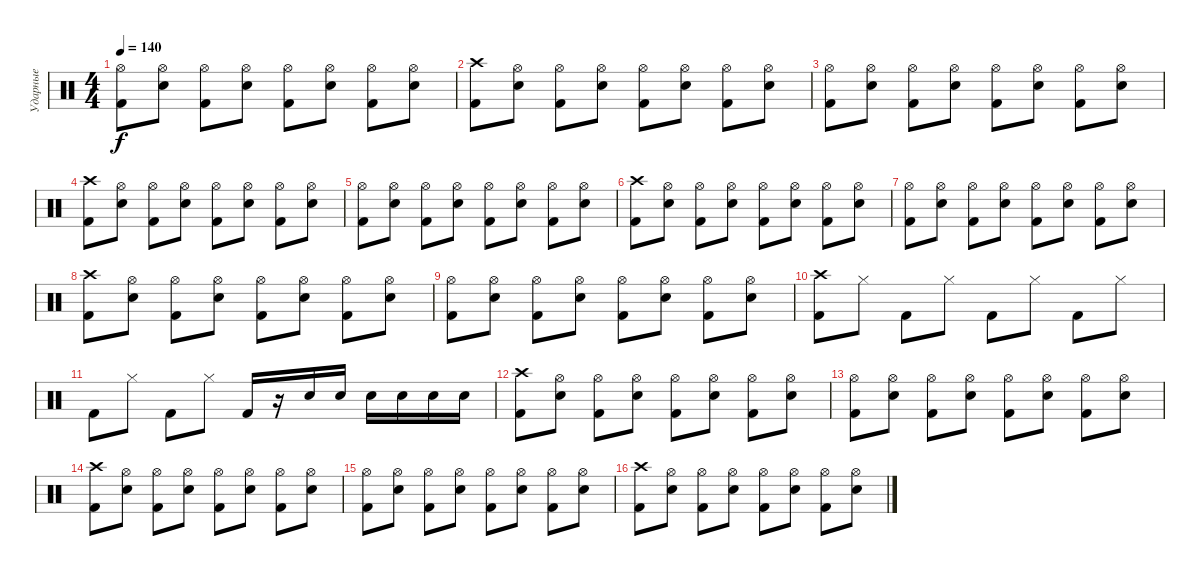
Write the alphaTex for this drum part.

\track ("Ударные" "Ударные") {instrument percussion}
\staff {score}
\articulation defaults
\ts (4 4)
\tempo 140
\clef neutral
\ks c
("Kick (hit) 2" "Hi-Hat (open)").8{dy f} ("Electric Snare (hit)" "Hi-Hat (open)").8 ("Kick (hit) 2" "Hi-Hat (open)").8 ("Electric Snare (hit)" "Hi-Hat (open)").8 ("Kick (hit) 2" "Hi-Hat (open)").8 ("Electric Snare (hit)" "Hi-Hat (open)").8 ("Kick (hit) 2" "Hi-Hat (open)").8 ("Electric Snare (hit)" "Hi-Hat (open)").8 |
("Kick (hit) 2" "Crash high (hit)").8 ("Electric Snare (hit)" "Hi-Hat (open)").8 ("Kick (hit) 2" "Hi-Hat (open)").8 ("Electric Snare (hit)" "Hi-Hat (open)").8 ("Kick (hit) 2" "Hi-Hat (open)").8 ("Electric Snare (hit)" "Hi-Hat (open)").8 ("Kick (hit) 2" "Hi-Hat (open)").8 ("Electric Snare (hit)" "Hi-Hat (open)").8 |
("Kick (hit) 2" "Hi-Hat (open)").8 ("Electric Snare (hit)" "Hi-Hat (open)").8 ("Kick (hit) 2" "Hi-Hat (open)").8 ("Electric Snare (hit)" "Hi-Hat (open)").8 ("Kick (hit) 2" "Hi-Hat (open)").8 ("Electric Snare (hit)" "Hi-Hat (open)").8 ("Kick (hit) 2" "Hi-Hat (open)").8 ("Electric Snare (hit)" "Hi-Hat (open)").8 |
("Kick (hit) 2" "Crash high (hit)").8 ("Electric Snare (hit)" "Hi-Hat (open)").8 ("Kick (hit) 2" "Hi-Hat (open)").8 ("Electric Snare (hit)" "Hi-Hat (open)").8 ("Kick (hit) 2" "Hi-Hat (open)").8 ("Electric Snare (hit)" "Hi-Hat (open)").8 ("Kick (hit) 2" "Hi-Hat (open)").8 ("Electric Snare (hit)" "Hi-Hat (open)").8 |
("Kick (hit) 2" "Hi-Hat (open)").8 ("Electric Snare (hit)" "Hi-Hat (open)").8 ("Kick (hit) 2" "Hi-Hat (open)").8 ("Electric Snare (hit)" "Hi-Hat (open)").8 ("Kick (hit) 2" "Hi-Hat (open)").8 ("Electric Snare (hit)" "Hi-Hat (open)").8 ("Kick (hit) 2" "Hi-Hat (open)").8 ("Electric Snare (hit)" "Hi-Hat (open)").8 |
("Kick (hit) 2" "Crash high (hit)").8 ("Electric Snare (hit)" "Hi-Hat (open)").8 ("Kick (hit) 2" "Hi-Hat (open)").8 ("Electric Snare (hit)" "Hi-Hat (open)").8 ("Kick (hit) 2" "Hi-Hat (open)").8 ("Electric Snare (hit)" "Hi-Hat (open)").8 ("Kick (hit) 2" "Hi-Hat (open)").8 ("Electric Snare (hit)" "Hi-Hat (open)").8 |
("Kick (hit) 2" "Hi-Hat (open)").8 ("Electric Snare (hit)" "Hi-Hat (open)").8 ("Kick (hit) 2" "Hi-Hat (open)").8 ("Electric Snare (hit)" "Hi-Hat (open)").8 ("Kick (hit) 2" "Hi-Hat (open)").8 ("Electric Snare (hit)" "Hi-Hat (open)").8 ("Kick (hit) 2" "Hi-Hat (open)").8 ("Electric Snare (hit)" "Hi-Hat (open)").8 |
("Kick (hit) 2" "Crash high (hit)").8 ("Electric Snare (hit)" "Hi-Hat (open)").8 ("Kick (hit) 2" "Hi-Hat (open)").8 ("Electric Snare (hit)" "Hi-Hat (open)").8 ("Kick (hit) 2" "Hi-Hat (open)").8 ("Electric Snare (hit)" "Hi-Hat (open)").8 ("Kick (hit) 2" "Hi-Hat (open)").8 ("Electric Snare (hit)" "Hi-Hat (open)").8 |
("Kick (hit) 2" "Hi-Hat (open)").8 ("Electric Snare (hit)" "Hi-Hat (open)").8 ("Kick (hit) 2" "Hi-Hat (open)").8 ("Electric Snare (hit)" "Hi-Hat (open)").8 ("Kick (hit) 2" "Hi-Hat (open)").8 ("Electric Snare (hit)" "Hi-Hat (open)").8 ("Kick (hit) 2" "Hi-Hat (open)").8 ("Electric Snare (hit)" "Hi-Hat (open)").8 |
("Kick (hit) 2" "Crash high (hit)").8 "Hi-Hat (closed)".8 "Kick (hit) 2".8 "Hi-Hat (closed)".8 "Kick (hit) 2".8 "Hi-Hat (closed)".8 "Kick (hit) 2".8 "Hi-Hat (closed)".8 |
"Kick (hit) 2".8 "Hi-Hat (closed)".8 "Kick (hit) 2".8 "Hi-Hat (closed)".8 "Kick (hit) 2".16 r.16 "Electric Snare (hit)".16 "Electric Snare (hit)".16 "Electric Snare (hit)".16 "Electric Snare (hit)".16 "Electric Snare (hit)".16 "Electric Snare (hit)".16 |
("Kick (hit) 2" "Crash high (hit)").8 ("Electric Snare (hit)" "Hi-Hat (open)").8 ("Kick (hit) 2" "Hi-Hat (open)").8 ("Electric Snare (hit)" "Hi-Hat (open)").8 ("Kick (hit) 2" "Hi-Hat (open)").8 ("Electric Snare (hit)" "Hi-Hat (open)").8 ("Kick (hit) 2" "Hi-Hat (open)").8 ("Electric Snare (hit)" "Hi-Hat (open)").8 |
("Kick (hit) 2" "Hi-Hat (open)").8 ("Electric Snare (hit)" "Hi-Hat (open)").8 ("Kick (hit) 2" "Hi-Hat (open)").8 ("Electric Snare (hit)" "Hi-Hat (open)").8 ("Kick (hit) 2" "Hi-Hat (open)").8 ("Electric Snare (hit)" "Hi-Hat (open)").8 ("Kick (hit) 2" "Hi-Hat (open)").8 ("Electric Snare (hit)" "Hi-Hat (open)").8 |
("Kick (hit) 2" "Crash high (hit)").8 ("Electric Snare (hit)" "Hi-Hat (open)").8 ("Kick (hit) 2" "Hi-Hat (open)").8 ("Electric Snare (hit)" "Hi-Hat (open)").8 ("Kick (hit) 2" "Hi-Hat (open)").8 ("Electric Snare (hit)" "Hi-Hat (open)").8 ("Kick (hit) 2" "Hi-Hat (open)").8 ("Electric Snare (hit)" "Hi-Hat (open)").8 |
("Kick (hit) 2" "Hi-Hat (open)").8 ("Electric Snare (hit)" "Hi-Hat (open)").8 ("Kick (hit) 2" "Hi-Hat (open)").8 ("Electric Snare (hit)" "Hi-Hat (open)").8 ("Kick (hit) 2" "Hi-Hat (open)").8 ("Electric Snare (hit)" "Hi-Hat (open)").8 ("Kick (hit) 2" "Hi-Hat (open)").8 ("Electric Snare (hit)" "Hi-Hat (open)").8 |
("Kick (hit) 2" "Crash high (hit)").8 ("Electric Snare (hit)" "Hi-Hat (open)").8 ("Kick (hit) 2" "Hi-Hat (open)").8 ("Electric Snare (hit)" "Hi-Hat (open)").8 ("Kick (hit) 2" "Hi-Hat (open)").8 ("Electric Snare (hit)" "Hi-Hat (open)").8 ("Kick (hit) 2" "Hi-Hat (open)").8 ("Electric Snare (hit)" "Hi-Hat (open)").8
